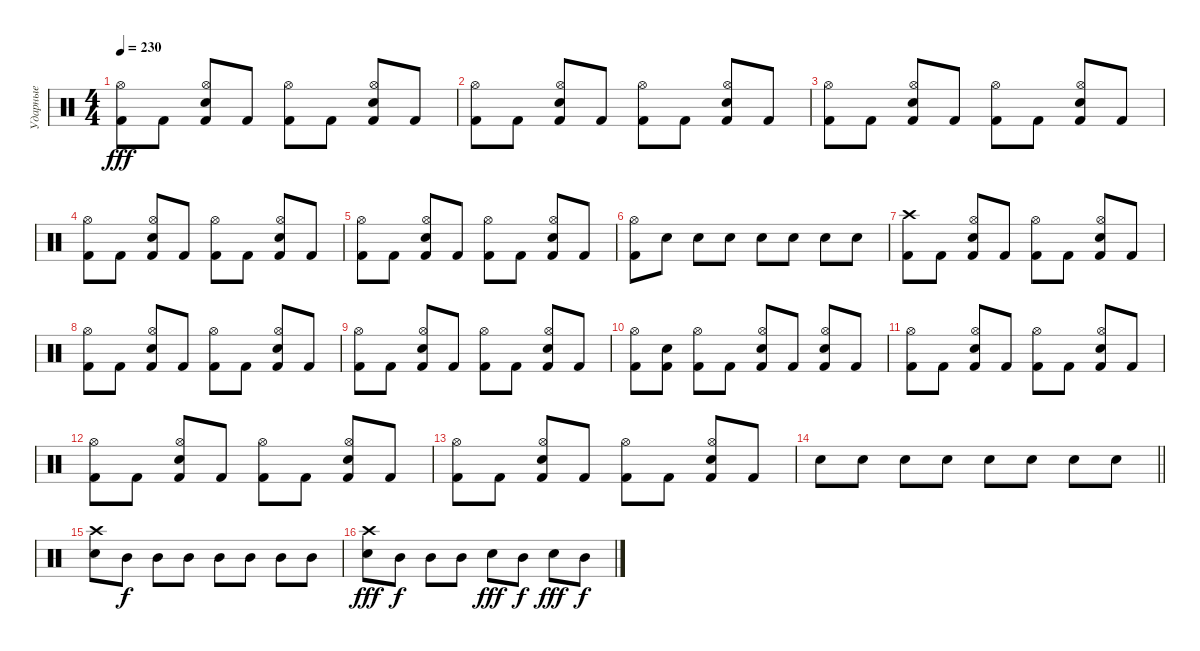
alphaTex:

\track ("Ударные" "Ударные") {instrument percussion}
\staff {score}
\articulation defaults
\ts (4 4)
\tempo 230
\clef neutral
\ks c
("Kick (hit) 2" "Hi-Hat (open)").8{dy fff} "Kick (hit) 2".8 ("Kick (hit) 2" "Snare (hit) 2" "Hi-Hat (open)").8 "Kick (hit) 2".8 ("Kick (hit) 2" "Hi-Hat (open)").8 "Kick (hit) 2".8 ("Kick (hit) 2" "Snare (hit) 2" "Hi-Hat (open)").8 "Kick (hit) 2".8 |
("Kick (hit) 2" "Hi-Hat (open)").8 "Kick (hit) 2".8 ("Kick (hit) 2" "Snare (hit) 2" "Hi-Hat (open)").8 "Kick (hit) 2".8 ("Kick (hit) 2" "Hi-Hat (open)").8 "Kick (hit) 2".8 ("Kick (hit) 2" "Snare (hit) 2" "Hi-Hat (open)").8 "Kick (hit) 2".8 |
("Kick (hit) 2" "Hi-Hat (open)").8 "Kick (hit) 2".8 ("Kick (hit) 2" "Snare (hit) 2" "Hi-Hat (open)").8 "Kick (hit) 2".8 ("Kick (hit) 2" "Hi-Hat (open)").8 "Kick (hit) 2".8 ("Kick (hit) 2" "Snare (hit) 2" "Hi-Hat (open)").8 "Kick (hit) 2".8 |
("Kick (hit) 2" "Hi-Hat (open)").8 "Kick (hit) 2".8 ("Kick (hit) 2" "Snare (hit) 2" "Hi-Hat (open)").8 "Kick (hit) 2".8 ("Kick (hit) 2" "Hi-Hat (open)").8 "Kick (hit) 2".8 ("Kick (hit) 2" "Snare (hit) 2" "Hi-Hat (open)").8 "Kick (hit) 2".8 |
("Kick (hit) 2" "Hi-Hat (open)").8 "Kick (hit) 2".8 ("Kick (hit) 2" "Snare (hit) 2" "Hi-Hat (open)").8 "Kick (hit) 2".8 ("Kick (hit) 2" "Hi-Hat (open)").8 "Kick (hit) 2".8 ("Kick (hit) 2" "Snare (hit) 2" "Hi-Hat (open)").8 "Kick (hit) 2".8 |
("Kick (hit) 2" "Hi-Hat (open)").8 "Snare (hit) 2".8 "Snare (hit) 2".8 "Snare (hit) 2".8 "Snare (hit) 2".8 "Snare (hit) 2".8 "Snare (hit) 2".8 "Snare (hit) 2".8 |
("Kick (hit) 2" "Crash high (hit)").8 "Kick (hit) 2".8 ("Kick (hit) 2" "Snare (hit) 2" "Hi-Hat (open)").8 "Kick (hit) 2".8 ("Kick (hit) 2" "Hi-Hat (open)").8 "Kick (hit) 2".8 ("Kick (hit) 2" "Snare (hit) 2" "Hi-Hat (open)").8 "Kick (hit) 2".8 |
("Kick (hit) 2" "Hi-Hat (open)").8 "Kick (hit) 2".8 ("Kick (hit) 2" "Snare (hit) 2" "Hi-Hat (open)").8 "Kick (hit) 2".8 ("Kick (hit) 2" "Hi-Hat (open)").8 "Kick (hit) 2".8 ("Kick (hit) 2" "Snare (hit) 2" "Hi-Hat (open)").8 "Kick (hit) 2".8 |
("Kick (hit) 2" "Hi-Hat (open)").8 "Kick (hit) 2".8 ("Kick (hit) 2" "Snare (hit) 2" "Hi-Hat (open)").8 "Kick (hit) 2".8 ("Kick (hit) 2" "Hi-Hat (open)").8 "Kick (hit) 2".8 ("Kick (hit) 2" "Snare (hit) 2" "Hi-Hat (open)").8 "Kick (hit) 2".8 |
("Kick (hit) 2" "Hi-Hat (open)").8 ("Kick (hit) 2" "Snare (hit) 2").8 ("Kick (hit) 2" "Hi-Hat (open)").8 "Kick (hit) 2".8 ("Kick (hit) 2" "Snare (hit) 2" "Hi-Hat (open)").8 "Kick (hit) 2".8 ("Kick (hit) 2" "Snare (hit) 2" "Hi-Hat (open)").8 "Kick (hit) 2".8 |
("Kick (hit) 2" "Hi-Hat (open)").8 "Kick (hit) 2".8 ("Kick (hit) 2" "Snare (hit) 2" "Hi-Hat (open)").8 "Kick (hit) 2".8 ("Kick (hit) 2" "Hi-Hat (open)").8 "Kick (hit) 2".8 ("Kick (hit) 2" "Snare (hit) 2" "Hi-Hat (open)").8 "Kick (hit) 2".8 |
("Kick (hit) 2" "Hi-Hat (open)").8 "Kick (hit) 2".8 ("Kick (hit) 2" "Snare (hit) 2" "Hi-Hat (open)").8 "Kick (hit) 2".8 ("Kick (hit) 2" "Hi-Hat (open)").8 "Kick (hit) 2".8 ("Kick (hit) 2" "Snare (hit) 2" "Hi-Hat (open)").8 "Kick (hit) 2".8 |
("Kick (hit) 2" "Hi-Hat (open)").8 "Kick (hit) 2".8 ("Kick (hit) 2" "Snare (hit) 2" "Hi-Hat (open)").8 "Kick (hit) 2".8 ("Kick (hit) 2" "Hi-Hat (open)").8 "Kick (hit) 2".8 ("Kick (hit) 2" "Snare (hit) 2" "Hi-Hat (open)").8 "Kick (hit) 2".8 |
\barLineRight lightlight "Snare (hit) 2".8 "Snare (hit) 2".8 "Snare (hit) 2".8 "Snare (hit) 2".8 "Snare (hit) 2".8 "Snare (hit) 2".8 "Snare (hit) 2".8 "Snare (hit) 2".8
|
("Snare (hit) 2" "Crash high (hit)").8 "Mid Tom (hit)".8{dy f} "Mid Tom (hit)".8 "Mid Tom (hit)".8 "Mid Tom (hit)".8 "Mid Tom (hit)".8 "Mid Tom (hit)".8 "Mid Tom (hit)".8 |
("Snare (hit) 2" "Crash high (hit)").8{dy fff} "Mid Tom (hit)".8{dy f} "Mid Tom (hit)".8 "Mid Tom (hit)".8 "Snare (hit) 2".8{dy fff} "Mid Tom (hit)".8{dy f} "Snare (hit) 2".8{dy fff} "Mid Tom (hit)".8{dy f}
